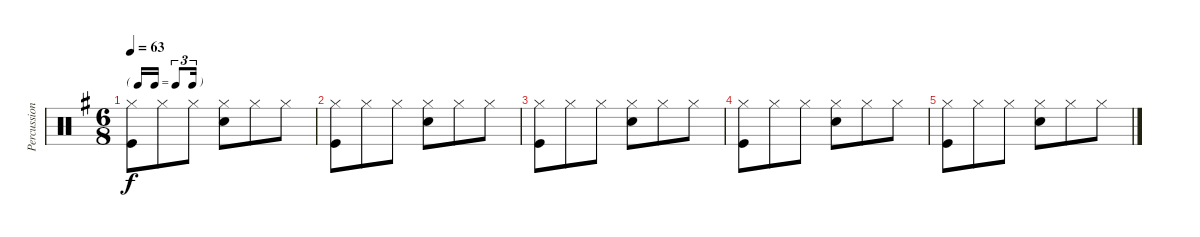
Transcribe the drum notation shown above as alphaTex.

\track ("Percussion" "Percussion") {instrument percussion}
\staff {score}
\articulation defaults
\ts (6 8)
\tf triplet16th
\tempo 63
\clef neutral
\ks g
("Hi-Hat (closed)" "Kick (hit)").8{dy f} "Hi-Hat (closed)".8 "Hi-Hat (closed)".8 ("Hi-Hat (closed)" "Electric Snare (hit)").8 "Hi-Hat (closed)".8 "Hi-Hat (closed)".8 |
("Hi-Hat (closed)" "Kick (hit)").8 "Hi-Hat (closed)".8 "Hi-Hat (closed)".8 ("Hi-Hat (closed)" "Electric Snare (hit)").8 "Hi-Hat (closed)".8 "Hi-Hat (closed)".8 |
("Hi-Hat (closed)" "Kick (hit)").8 "Hi-Hat (closed)".8 "Hi-Hat (closed)".8 ("Hi-Hat (closed)" "Electric Snare (hit)").8 "Hi-Hat (closed)".8 "Hi-Hat (closed)".8 |
("Hi-Hat (closed)" "Kick (hit)").8 "Hi-Hat (closed)".8 "Hi-Hat (closed)".8 ("Hi-Hat (closed)" "Electric Snare (hit)").8 "Hi-Hat (closed)".8 "Hi-Hat (closed)".8 |
("Hi-Hat (closed)" "Kick (hit)").8 "Hi-Hat (closed)".8 "Hi-Hat (closed)".8 ("Hi-Hat (closed)" "Electric Snare (hit)").8 "Hi-Hat (closed)".8 "Hi-Hat (closed)".8
